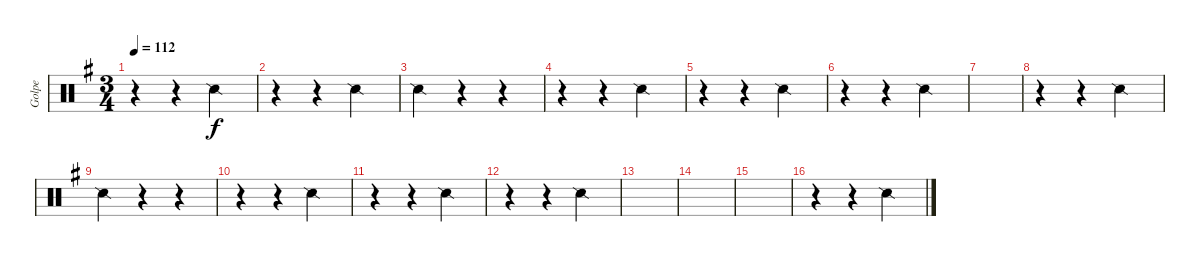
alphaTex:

\track ("Golpe" "Golpe") {instrument percussion}
\staff {score}
\articulation defaults
\ts (3 4)
\tempo 112
\clef neutral
\ks g
r.4{dy f} r.4 "Snare (side stick) 2".4 |
r.4 r.4 "Snare (side stick) 2".4 |
"Snare (side stick) 2".4 r.4 r.4 |
r.4 r.4 "Snare (side stick) 2".4 |
r.4 r.4 "Snare (side stick) 2".4 |
r.4 r.4 "Snare (side stick) 2".4 |
|
r.4 r.4 "Snare (side stick) 2".4 |
"Snare (side stick) 2".4 r.4 r.4 |
r.4 r.4 "Snare (side stick) 2".4 |
r.4 r.4 "Snare (side stick) 2".4 |
r.4 r.4 "Snare (side stick) 2".4 |
|
|
|
r.4 r.4 "Snare (side stick) 2".4
